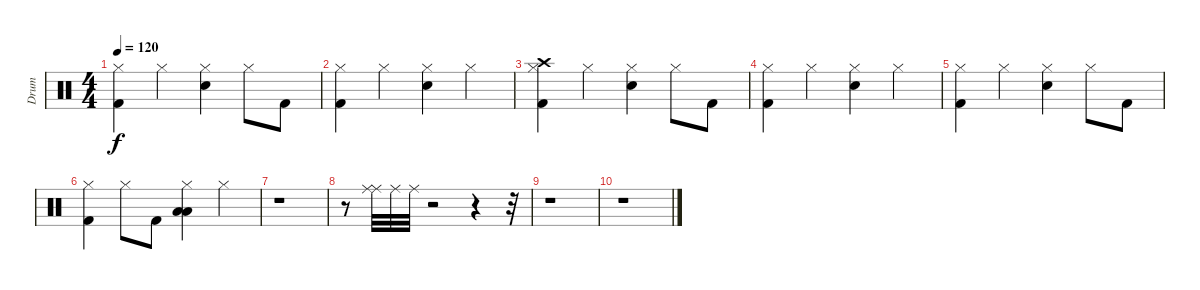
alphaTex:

\track ("Drum" "Drum") {instrument percussion}
\staff {score}
\articulation defaults
\ts (4 4)
\tempo 120
\clef neutral
\ks c
("Hi-Hat (closed)" "Kick (hit) 2").4{dy f} "Hi-Hat (closed)".4 ("Hi-Hat (closed)" "Electric Snare (hit)").4 "Hi-Hat (closed)".8 "Kick (hit) 2".8 |
("Hi-Hat (closed)" "Kick (hit) 2").4 "Hi-Hat (closed)".4 ("Hi-Hat (closed)" "Electric Snare (hit)").4 "Hi-Hat (closed)".4 |
("Hi-Hat (closed)" "Crash high (hit)" "Kick (hit) 2").4 "Hi-Hat (closed)".4 ("Hi-Hat (closed)" "Electric Snare (hit)").4 "Hi-Hat (closed)".8 "Kick (hit) 2".8 |
("Hi-Hat (closed)" "Kick (hit) 2").4 "Hi-Hat (closed)".4 ("Hi-Hat (closed)" "Electric Snare (hit)").4 "Hi-Hat (closed)".4 |
("Hi-Hat (closed)" "Kick (hit) 2").4 "Hi-Hat (closed)".4 ("Hi-Hat (closed)" "Electric Snare (hit)").4 "Hi-Hat (closed)".8 "Kick (hit) 2".8 |
("Hi-Hat (closed)" "Kick (hit) 2").4 "Hi-Hat (closed)".8 "Kick (hit) 2".8 ("Hi-Hat (closed)" "Low Tom (hit)" "Low Tom (hit)").4 "Hi-Hat (closed)".4 |
r.1 |
r.8 ("Ride (middle)" "Ride (middle)").32 "Ride (middle)".32 "Ride (middle)".32 r.2 r.4 r.32 |
r.1 |
r.1
